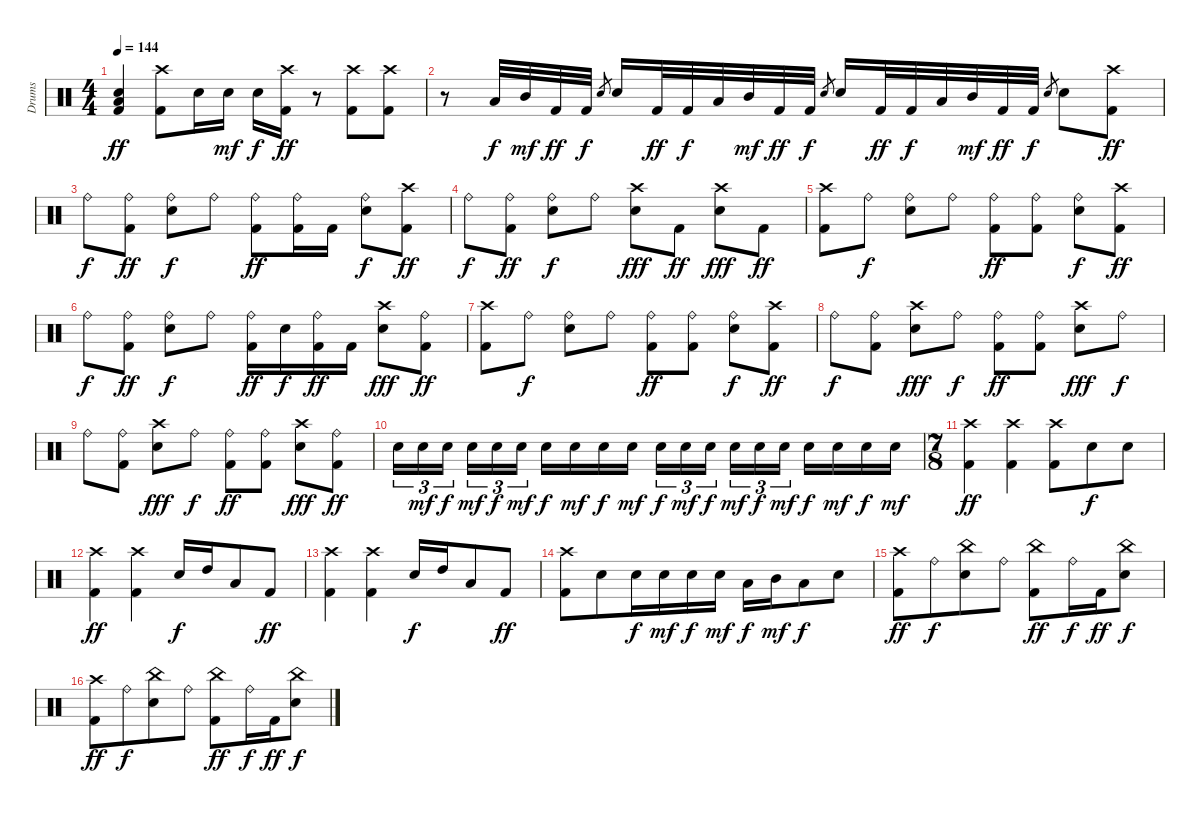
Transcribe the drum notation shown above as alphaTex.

\track ("Drums" "Drums") {instrument percussion}
\staff {score}
\articulation defaults
\ts (4 4)
\tempo 144
\clef neutral
\ks c
("Snare (hit) 2" "Low Floor Tom (hit)" "Kick (hit) 2").4{dy ff} ("Crash high (hit)" "Kick (hit) 2").8 "Snare (hit) 2".16 "Snare (hit) 2".16{dy mf} "Snare (hit) 2".16{dy f} ("Crash high (hit)" "Kick (hit) 2").16{dy ff} r.8 ("Crash high (hit)" "Kick (hit) 2").8 ("Crash high (hit)" "Kick (hit) 2").8 |
r.8 "Low Tom (hit)".32{dy f} "Mid Tom (hit)".32{dy mf} "Kick (hit) 2".32{dy ff} "Kick (hit) 2".32{dy f} "Snare (hit) 2".8{gr} "Snare (hit) 2".16 "Kick (hit) 2".32{dy ff} "Kick (hit) 2".32{dy f} "Low Tom (hit)".32 "Mid Tom (hit)".32{dy mf} "Kick (hit) 2".32{dy ff} "Kick (hit) 2".32{dy f} "Snare (hit) 2".8{gr} "Snare (hit) 2".16 "Kick (hit) 2".32{dy ff} "Kick (hit) 2".32{dy f} "Low Tom (hit)".32 "Mid Tom (hit)".32{dy mf} "Kick (hit) 2".32{dy ff} "Kick (hit) 2".32{dy f} "Snare (hit) 2".8{gr} "Snare (hit) 2".8 ("Crash high (hit)" "Kick (hit) 2").8{dy ff} |
"Ride (bell)".8{dy f} ("Ride (bell)" "Kick (hit) 2").8{dy ff} ("Ride (bell)" "Snare (hit) 2").8{dy f} "Ride (bell)".8 ("Ride (bell)" "Kick (hit) 2").8{dy ff} ("Ride (bell)" "Kick (hit) 2").16 "Kick (hit) 2".16 ("Ride (bell)" "Snare (hit) 2").8{dy f} ("Crash high (hit)" "Kick (hit) 2").8{dy ff} |
"Ride (bell)".8{dy f} ("Ride (bell)" "Kick (hit) 2").8{dy ff} ("Ride (bell)" "Snare (hit) 2").8{dy f} "Ride (bell)".8 ("Crash high (hit)" "Snare (hit) 2").8{dy fff} "Kick (hit) 2".8{dy ff} ("Crash high (hit)" "Snare (hit) 2").8{dy fff} "Kick (hit) 2".8{dy ff} |
("Crash high (hit)" "Kick (hit) 2").8 "Ride (bell)".8{dy f} ("Ride (bell)" "Snare (hit) 2").8 "Ride (bell)".8 ("Ride (bell)" "Kick (hit) 2").8{dy ff} ("Ride (bell)" "Kick (hit) 2").8 ("Ride (bell)" "Snare (hit) 2").8{dy f} ("Crash high (hit)" "Kick (hit) 2").8{dy ff} |
"Ride (bell)".8{dy f} ("Ride (bell)" "Kick (hit) 2").8{dy ff} ("Ride (bell)" "Snare (hit) 2").8{dy f} "Ride (bell)".8 ("Ride (bell)" "Kick (hit) 2").16{dy ff} "Snare (hit) 2".16{dy f} ("Ride (bell)" "Kick (hit) 2").16{dy ff} "Kick (hit) 2".16 ("Crash high (hit)" "Snare (hit) 2").8{dy fff} ("Ride (bell)" "Kick (hit) 2").8{dy ff} |
("Crash high (hit)" "Kick (hit) 2").8 "Ride (bell)".8{dy f} ("Ride (bell)" "Snare (hit) 2").8 "Ride (bell)".8 ("Ride (bell)" "Kick (hit) 2").8{dy ff} ("Ride (bell)" "Kick (hit) 2").8 ("Ride (bell)" "Snare (hit) 2").8{dy f} ("Crash high (hit)" "Kick (hit) 2").8{dy ff} |
"Ride (bell)".8{dy f} ("Ride (bell)" "Kick (hit) 2").8 ("Crash high (hit)" "Snare (hit) 2").8{dy fff} "Ride (bell)".8{dy f} ("Ride (bell)" "Kick (hit) 2").8{dy ff} ("Ride (bell)" "Kick (hit) 2").8 ("Crash high (hit)" "Snare (hit) 2").8{dy fff} "Ride (bell)".8{dy f} |
"Ride (bell)".8 ("Ride (bell)" "Kick (hit) 2").8 ("Crash high (hit)" "Snare (hit) 2").8{dy fff} "Ride (bell)".8{dy f} ("Ride (bell)" "Kick (hit) 2").8{dy ff} ("Ride (bell)" "Kick (hit) 2").8 ("Crash high (hit)" "Snare (hit) 2").8{dy fff} ("Ride (bell)" "Kick (hit) 2").8{dy ff} |
"Snare (hit) 2".16{tu (3 2)} "Snare (hit) 2".16{tu (3 2) dy mf} "Snare (hit) 2".16{tu (3 2) dy f} "Snare (hit) 2".16{tu (3 2) dy mf} "Snare (hit) 2".16{tu (3 2) dy f} "Snare (hit) 2".16{tu (3 2) dy mf} "Snare (hit) 2".16{dy f} "Snare (hit) 2".16{dy mf} "Snare (hit) 2".16{dy f} "Snare (hit) 2".16{dy mf} "Snare (hit) 2".16{tu (3 2) dy f} "Snare (hit) 2".16{tu (3 2) dy mf} "Snare (hit) 2".16{tu (3 2) dy f} "Snare (hit) 2".16{tu (3 2) dy mf} "Snare (hit) 2".16{tu (3 2) dy f} "Snare (hit) 2".16{tu (3 2) dy mf} "Snare (hit) 2".16{dy f} "Snare (hit) 2".16{dy mf} "Snare (hit) 2".16{dy f} "Snare (hit) 2".16{dy mf} |
\ts (7 8)
("Crash high (hit)" "Kick (hit) 2").4{dy ff} ("Crash high (hit)" "Kick (hit) 2").4 ("Crash high (hit)" "Kick (hit) 2").8 "Snare (hit) 2".8{dy f} "Snare (hit) 2".8 |
("Crash high (hit)" "Kick (hit) 2").4{dy ff} ("Crash high (hit)" "Kick (hit) 2").4 "Snare (hit) 2".16{dy f} "High Tom (hit)".16 "Low Floor Tom (hit)".8 "Kick (hit) 2".8{dy ff} |
("Crash high (hit)" "Kick (hit) 2").4 ("Crash high (hit)" "Kick (hit) 2").4 "Snare (hit) 2".16{dy f} "High Tom (hit)".16 "Low Floor Tom (hit)".8 "Kick (hit) 2".8{dy ff} |
("Crash high (hit)" "Kick (hit) 2").8 "Snare (hit) 2".8 "Snare (hit) 2".16{dy f} "Snare (hit) 2".16{dy mf} "Snare (hit) 2".16{dy f} "Snare (hit) 2".16{dy mf} "Low Tom (hit)".16{dy f} "Mid Tom (hit)".16{dy mf} "Low Tom (hit)".8{dy f} "Snare (hit) 2".8 |
("Crash high (hit)" "Kick (hit) 2").8{dy ff} "Ride (bell)".8{dy f} ("China (hit)" "Snare (hit) 2").8 "Ride (bell)".8 ("China (hit)" "Kick (hit) 2").8{dy ff} "Ride (bell)".16{dy f} "Kick (hit) 2".16{dy ff} ("China (hit)" "Snare (hit) 2").8{dy f} |
("Crash high (hit)" "Kick (hit) 2").8{dy ff} "Ride (bell)".8{dy f} ("China (hit)" "Snare (hit) 2").8 "Ride (bell)".8 ("China (hit)" "Kick (hit) 2").8{dy ff} "Ride (bell)".16{dy f} "Kick (hit) 2".16{dy ff} ("China (hit)" "Snare (hit) 2").8{dy f}
